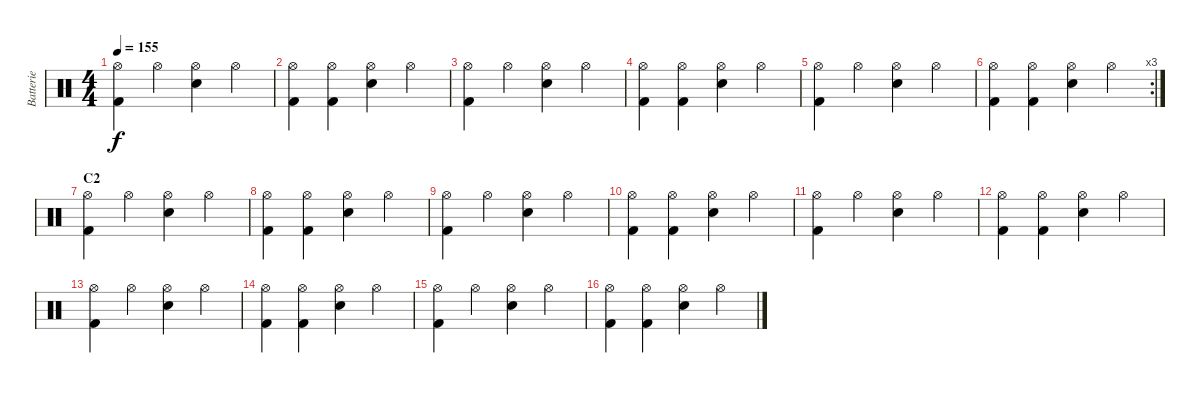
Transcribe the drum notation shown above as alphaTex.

\track ("Batterie" "Batterie") {instrument percussion}
\staff {score}
\articulation defaults
\ts (4 4)
\tempo 155
\clef neutral
\ks c
("Hi-Hat (open)" "Kick (hit) 2").4{dy f} "Hi-Hat (open)".4 ("Hi-Hat (open)" "Snare (hit) 2").4 "Hi-Hat (open)".4 |
("Hi-Hat (open)" "Kick (hit) 2").4 ("Hi-Hat (open)" "Kick (hit) 2").4 ("Hi-Hat (open)" "Snare (hit) 2").4 "Hi-Hat (open)".4 |
("Hi-Hat (open)" "Kick (hit) 2").4 "Hi-Hat (open)".4 ("Hi-Hat (open)" "Snare (hit) 2").4 "Hi-Hat (open)".4 |
("Hi-Hat (open)" "Kick (hit) 2").4 ("Hi-Hat (open)" "Kick (hit) 2").4 ("Hi-Hat (open)" "Snare (hit) 2").4 "Hi-Hat (open)".4 |
("Hi-Hat (open)" "Kick (hit) 2").4 "Hi-Hat (open)".4 ("Hi-Hat (open)" "Snare (hit) 2").4 "Hi-Hat (open)".4 |
\rc 3
("Hi-Hat (open)" "Kick (hit) 2").4 ("Hi-Hat (open)" "Kick (hit) 2").4 ("Hi-Hat (open)" "Snare (hit) 2").4 "Hi-Hat (open)".4 |
\section ("" "C2")
("Hi-Hat (open)" "Kick (hit) 2").4 "Hi-Hat (open)".4 ("Hi-Hat (open)" "Snare (hit) 2").4 "Hi-Hat (open)".4 |
("Hi-Hat (open)" "Kick (hit) 2").4 ("Hi-Hat (open)" "Kick (hit) 2").4 ("Hi-Hat (open)" "Snare (hit) 2").4 "Hi-Hat (open)".4 |
("Hi-Hat (open)" "Kick (hit) 2").4 "Hi-Hat (open)".4 ("Hi-Hat (open)" "Snare (hit) 2").4 "Hi-Hat (open)".4 |
("Hi-Hat (open)" "Kick (hit) 2").4 ("Hi-Hat (open)" "Kick (hit) 2").4 ("Hi-Hat (open)" "Snare (hit) 2").4 "Hi-Hat (open)".4 |
("Hi-Hat (open)" "Kick (hit) 2").4 "Hi-Hat (open)".4 ("Hi-Hat (open)" "Snare (hit) 2").4 "Hi-Hat (open)".4 |
("Hi-Hat (open)" "Kick (hit) 2").4 ("Hi-Hat (open)" "Kick (hit) 2").4 ("Hi-Hat (open)" "Snare (hit) 2").4 "Hi-Hat (open)".4 |
("Hi-Hat (open)" "Kick (hit) 2").4 "Hi-Hat (open)".4 ("Hi-Hat (open)" "Snare (hit) 2").4 "Hi-Hat (open)".4 |
("Hi-Hat (open)" "Kick (hit) 2").4 ("Hi-Hat (open)" "Kick (hit) 2").4 ("Hi-Hat (open)" "Snare (hit) 2").4 "Hi-Hat (open)".4 |
("Hi-Hat (open)" "Kick (hit) 2").4 "Hi-Hat (open)".4 ("Hi-Hat (open)" "Snare (hit) 2").4 "Hi-Hat (open)".4 |
("Hi-Hat (open)" "Kick (hit) 2").4 ("Hi-Hat (open)" "Kick (hit) 2").4 ("Hi-Hat (open)" "Snare (hit) 2").4 "Hi-Hat (open)".4
